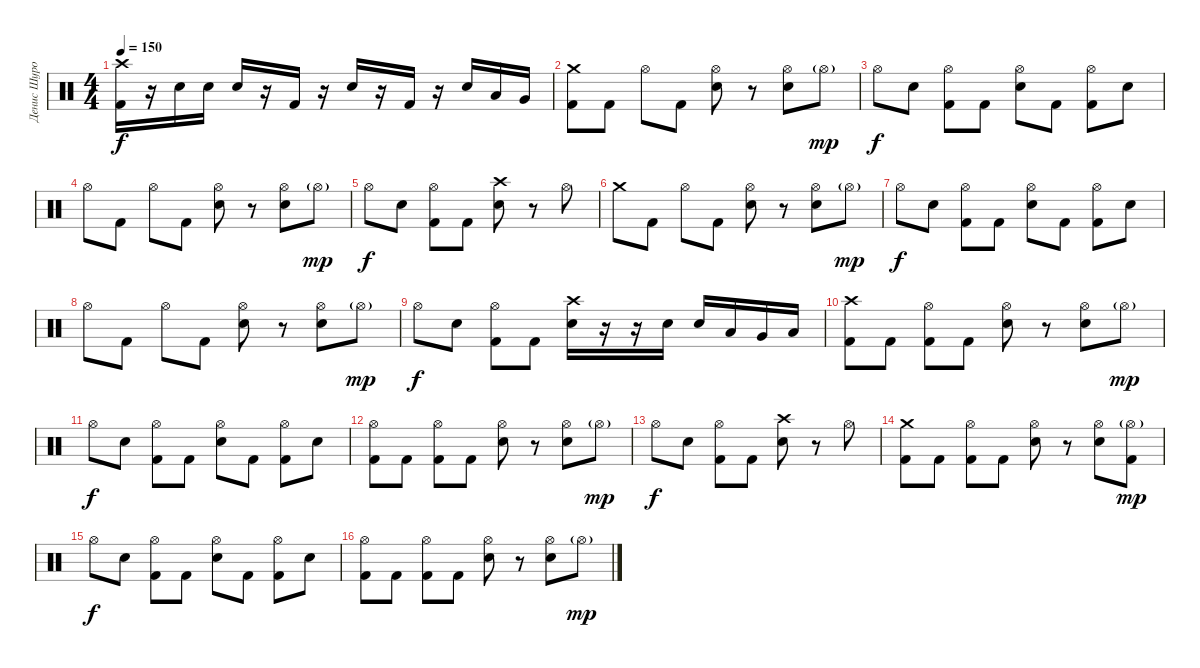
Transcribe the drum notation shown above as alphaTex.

\track ("Денис Шуров" "Денис Шуро") {instrument percussion}
\staff {score}
\articulation defaults
\ts (4 4)
\tempo 150
\clef neutral
\ks c
("Crash high (hit)" "Kick (hit) 2").16{dy f} r.16 "Electric Snare (hit)".16 "Electric Snare (hit)".16 "Electric Snare (hit)".16 r.16 "Kick (hit) 2".16 r.16 "Electric Snare (hit)".16 r.16 "Kick (hit) 2".16 r.16 "Electric Snare (hit)".16 "Low Tom (hit)".16 "Very Low Tom (hit)".16 |
("Crash medium (hit)" "Kick (hit) 2").8 "Kick (hit) 2".8 "Hi-Hat (open)".8 "Kick (hit) 2".8 ("Hi-Hat (open)" "Electric Snare (hit)").8 r.8 ("Hi-Hat (open)" "Electric Snare (hit)").8 "Hi-Hat (open)"{g}.8{dy mp} |
"Hi-Hat (open)".8{dy f} "Electric Snare (hit)".8 ("Hi-Hat (open)" "Kick (hit) 2").8 "Kick (hit) 2".8 ("Hi-Hat (open)" "Electric Snare (hit)").8 "Kick (hit) 2".8 ("Hi-Hat (open)" "Kick (hit) 2").8 "Electric Snare (hit)".8 |
"Hi-Hat (open)".8 "Kick (hit) 2".8 "Hi-Hat (open)".8 "Kick (hit) 2".8 ("Hi-Hat (open)" "Electric Snare (hit)").8 r.8 ("Hi-Hat (open)" "Electric Snare (hit)").8 "Hi-Hat (open)"{g}.8{dy mp} |
"Hi-Hat (open)".8{dy f} "Electric Snare (hit)".8 ("Hi-Hat (open)" "Kick (hit) 2").8 "Kick (hit) 2".8 ("Crash high (hit)" "Electric Snare (hit)").8 r.8 "Hi-Hat (open)".8 |
"Crash medium (hit)".8 "Kick (hit) 2".8 "Hi-Hat (open)".8 "Kick (hit) 2".8 ("Hi-Hat (open)" "Electric Snare (hit)").8 r.8 ("Hi-Hat (open)" "Electric Snare (hit)").8 "Hi-Hat (open)"{g}.8{dy mp} |
"Hi-Hat (open)".8{dy f} "Electric Snare (hit)".8 ("Hi-Hat (open)" "Kick (hit) 2").8 "Kick (hit) 2".8 ("Hi-Hat (open)" "Electric Snare (hit)").8 "Kick (hit) 2".8 ("Hi-Hat (open)" "Kick (hit) 2").8 "Electric Snare (hit)".8 |
"Hi-Hat (open)".8 "Kick (hit) 2".8 "Hi-Hat (open)".8 "Kick (hit) 2".8 ("Hi-Hat (open)" "Electric Snare (hit)").8 r.8 ("Hi-Hat (open)" "Electric Snare (hit)").8 "Hi-Hat (open)"{g}.8{dy mp} |
"Hi-Hat (open)".8{dy f} "Electric Snare (hit)".8 ("Hi-Hat (open)" "Kick (hit) 2").8 "Kick (hit) 2".8 ("Crash high (hit)" "Electric Snare (hit)").16 r.16 r.16 "Electric Snare (hit)".16 "Electric Snare (hit)".16 "Low Tom (hit)".16 "Very Low Tom (hit)".16 "Low Floor Tom (hit)".16 |
("Crash high (hit)" "Kick (hit) 2").8 "Kick (hit) 2".8 ("Hi-Hat (open)" "Kick (hit) 2").8 "Kick (hit) 2".8 ("Hi-Hat (open)" "Electric Snare (hit)").8 r.8 ("Hi-Hat (open)" "Electric Snare (hit)").8 "Hi-Hat (open)"{g}.8{dy mp} |
"Hi-Hat (open)".8{dy f} "Electric Snare (hit)".8 ("Hi-Hat (open)" "Kick (hit) 2").8 "Kick (hit) 2".8 ("Hi-Hat (open)" "Electric Snare (hit)").8 "Kick (hit) 2".8 ("Hi-Hat (open)" "Kick (hit) 2").8 "Electric Snare (hit)".8 |
("Hi-Hat (open)" "Kick (hit) 2").8 "Kick (hit) 2".8 ("Hi-Hat (open)" "Kick (hit) 2").8 "Kick (hit) 2".8 ("Hi-Hat (open)" "Electric Snare (hit)").8 r.8 ("Hi-Hat (open)" "Electric Snare (hit)").8 "Hi-Hat (open)"{g}.8{dy mp} |
"Hi-Hat (open)".8{dy f} "Electric Snare (hit)".8 ("Hi-Hat (open)" "Kick (hit) 2").8 "Kick (hit) 2".8 ("Crash high (hit)" "Electric Snare (hit)").8 r.8 "Hi-Hat (open)".8 |
("Crash medium (hit)" "Kick (hit) 2").8 "Kick (hit) 2".8 ("Hi-Hat (open)" "Kick (hit) 2").8 "Kick (hit) 2".8 ("Hi-Hat (open)" "Electric Snare (hit)").8 r.8 ("Hi-Hat (open)" "Electric Snare (hit)").8 ("Hi-Hat (open)"{g} "Kick (hit) 2").8{dy mp} |
"Hi-Hat (open)".8{dy f} "Electric Snare (hit)".8 ("Hi-Hat (open)" "Kick (hit) 2").8 "Kick (hit) 2".8 ("Hi-Hat (open)" "Electric Snare (hit)").8 "Kick (hit) 2".8 ("Hi-Hat (open)" "Kick (hit) 2").8 "Electric Snare (hit)".8 |
("Hi-Hat (open)" "Kick (hit) 2").8 "Kick (hit) 2".8 ("Hi-Hat (open)" "Kick (hit) 2").8 "Kick (hit) 2".8 ("Hi-Hat (open)" "Electric Snare (hit)").8 r.8 ("Hi-Hat (open)" "Electric Snare (hit)").8 "Hi-Hat (open)"{g}.8{dy mp}
